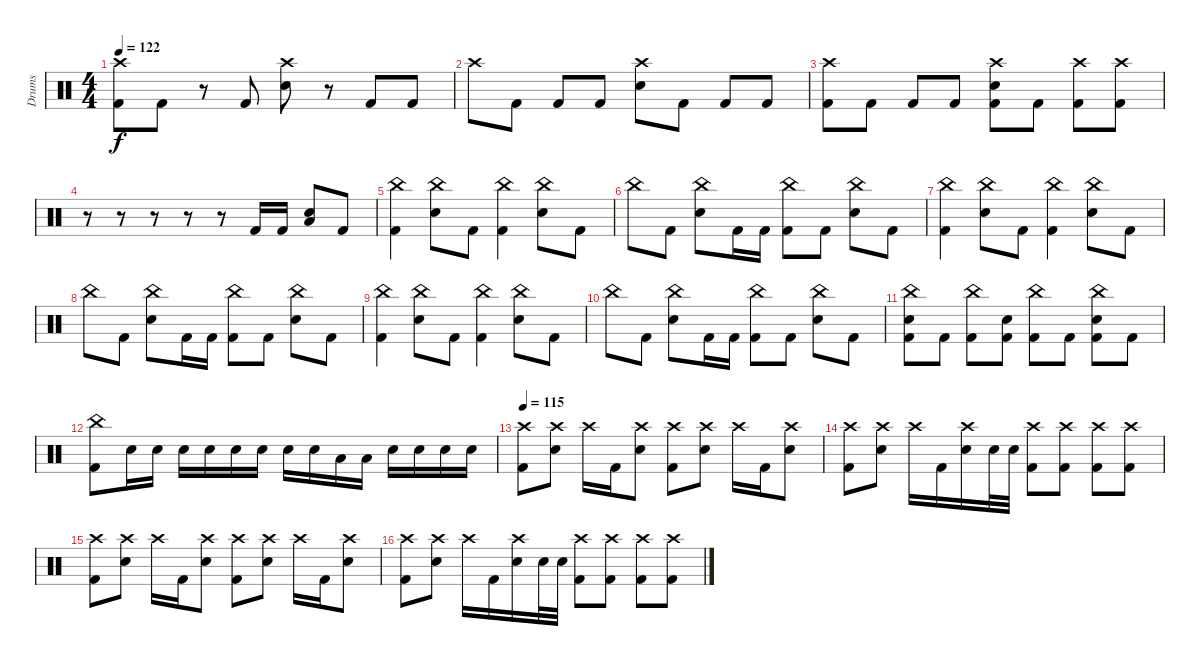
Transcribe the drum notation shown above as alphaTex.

\track ("Drums" "Drums") {instrument percussion}
\staff {score}
\articulation defaults
\ts (4 4)
\tempo 122
\clef neutral
\ks c
("Crash high (hit)" "Kick (hit) 2").8{dy f} "Kick (hit) 2".8 r.8 "Kick (hit) 2".8 ("Crash high (hit)" "Electric Snare (hit)").8 r.8 "Kick (hit) 2".8 "Kick (hit) 2".8 |
"Crash high (hit)".8 "Kick (hit) 2".8 "Kick (hit) 2".8 "Kick (hit) 2".8 ("Crash high (hit)" "Electric Snare (hit)").8 "Kick (hit) 2".8 "Kick (hit) 2".8 "Kick (hit) 2".8 |
("Crash high (hit)" "Kick (hit) 2").8 "Kick (hit) 2".8 "Kick (hit) 2".8 "Kick (hit) 2".8 ("Crash high (hit)" "Electric Snare (hit)" "Kick (hit) 2").8 "Kick (hit) 2".8 ("Crash high (hit)" "Kick (hit) 2").8 ("Crash high (hit)" "Kick (hit) 2").8 |
r.8 r.8 r.8 r.8 r.8 "Kick (hit) 2".16 "Kick (hit) 2".16 ("Low Floor Tom (hit)" "Electric Snare (hit)").8 "Kick (hit) 2".8 |
("China (hit)" "Kick (hit) 2").4 ("China (hit)" "Electric Snare (hit)").8 "Kick (hit) 2".8 ("China (hit)" "Kick (hit) 2").4 ("China (hit)" "Electric Snare (hit)").8 "Kick (hit) 2".8 |
"China (hit)".8 "Kick (hit) 2".8 ("China (hit)" "Electric Snare (hit)").8 "Kick (hit) 2".16 "Kick (hit) 2".16 ("China (hit)" "Kick (hit) 2").8 "Kick (hit) 2".8 ("China (hit)" "Electric Snare (hit)").8 "Kick (hit) 2".8 |
("China (hit)" "Kick (hit) 2").4 ("China (hit)" "Electric Snare (hit)").8 "Kick (hit) 2".8 ("China (hit)" "Kick (hit) 2").4 ("China (hit)" "Electric Snare (hit)").8 "Kick (hit) 2".8 |
"China (hit)".8 "Kick (hit) 2".8 ("China (hit)" "Electric Snare (hit)").8 "Kick (hit) 2".16 "Kick (hit) 2".16 ("China (hit)" "Kick (hit) 2").8 "Kick (hit) 2".8 ("China (hit)" "Electric Snare (hit)").8 "Kick (hit) 2".8 |
("China (hit)" "Kick (hit) 2").4 ("China (hit)" "Electric Snare (hit)").8 "Kick (hit) 2".8 ("China (hit)" "Kick (hit) 2").4 ("China (hit)" "Electric Snare (hit)").8 "Kick (hit) 2".8 |
"China (hit)".8 "Kick (hit) 2".8 ("China (hit)" "Electric Snare (hit)").8 "Kick (hit) 2".16 "Kick (hit) 2".16 ("China (hit)" "Kick (hit) 2").8 "Kick (hit) 2".8 ("China (hit)" "Electric Snare (hit)").8 "Kick (hit) 2".8 |
("China (hit)" "Electric Snare (hit)" "Kick (hit) 2").8 "Kick (hit) 2".8 ("China (hit)" "Kick (hit) 2").8 ("Electric Snare (hit)" "Kick (hit) 2").8 ("China (hit)" "Kick (hit) 2").8 "Kick (hit) 2".8 ("China (hit)" "Electric Snare (hit)" "Kick (hit) 2").8 "Kick (hit) 2".8 |
("China (hit)" "Kick (hit) 2").8 "Electric Snare (hit)".16 "Electric Snare (hit)".16 "Electric Snare (hit)".16 "Electric Snare (hit)".16 "Electric Snare (hit)".16 "Electric Snare (hit)".16 "Electric Snare (hit)".16 "Electric Snare (hit)".16 "Low Tom (hit)".16 "Low Tom (hit)".16 "Electric Snare (hit)".16 "Electric Snare (hit)".16 "Electric Snare (hit)".16 "Electric Snare (hit)".16 |
\tempo 115
("Crash high (hit)" "Kick (hit) 2").8 ("Crash high (hit)" "Electric Snare (hit)").8 "Crash high (hit)".16 "Kick (hit) 2".16 ("Crash high (hit)" "Electric Snare (hit)").8 ("Crash high (hit)" "Kick (hit) 2").8 ("Crash high (hit)" "Electric Snare (hit)").8 "Crash high (hit)".16 "Kick (hit) 2".16 ("Crash high (hit)" "Electric Snare (hit)").8 |
("Crash high (hit)" "Kick (hit) 2").8 ("Crash high (hit)" "Electric Snare (hit)").8 "Crash high (hit)".16 "Kick (hit) 2".16 ("Crash high (hit)" "Electric Snare (hit)").16 "Electric Snare (hit)".32 "Electric Snare (hit)".32 ("Crash high (hit)" "Kick (hit) 2").8 ("Crash high (hit)" "Kick (hit) 2").8 ("Crash high (hit)" "Kick (hit) 2").8 ("Crash high (hit)" "Kick (hit) 2").8 |
("Crash high (hit)" "Kick (hit) 2").8 ("Crash high (hit)" "Electric Snare (hit)").8 "Crash high (hit)".16 "Kick (hit) 2".16 ("Crash high (hit)" "Electric Snare (hit)").8 ("Crash high (hit)" "Kick (hit) 2").8 ("Crash high (hit)" "Electric Snare (hit)").8 "Crash high (hit)".16 "Kick (hit) 2".16 ("Crash high (hit)" "Electric Snare (hit)").8 |
("Crash high (hit)" "Kick (hit) 2").8 ("Crash high (hit)" "Electric Snare (hit)").8 "Crash high (hit)".16 "Kick (hit) 2".16 ("Crash high (hit)" "Electric Snare (hit)").16 "Electric Snare (hit)".32 "Electric Snare (hit)".32 ("Crash high (hit)" "Kick (hit) 2").8 ("Crash high (hit)" "Kick (hit) 2").8 ("Crash high (hit)" "Kick (hit) 2").8 ("Crash high (hit)" "Kick (hit) 2").8
